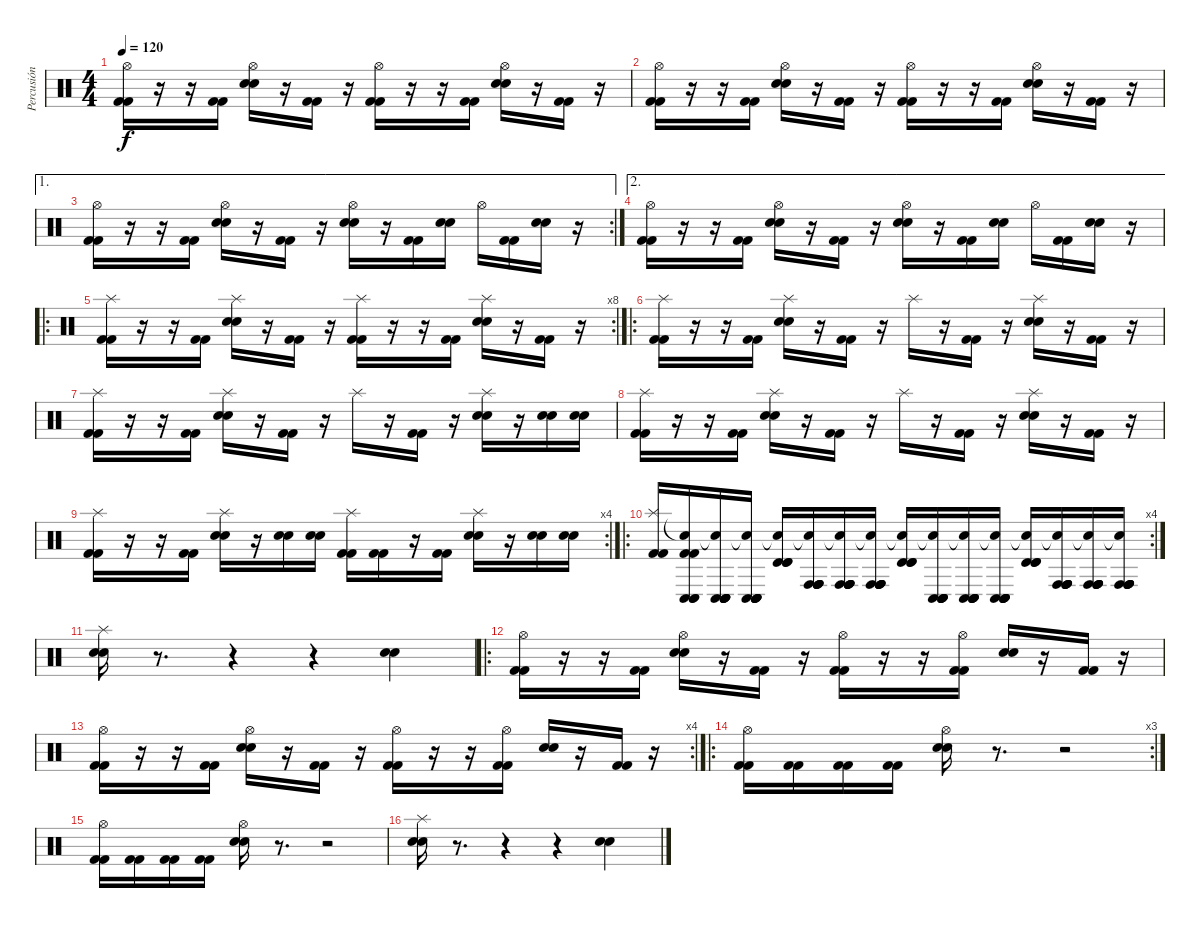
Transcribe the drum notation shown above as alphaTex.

\track ("Percusión" "Percusión") {instrument percussion}
\staff {score}
\articulation defaults
\ts (4 4)
\tempo 120
\clef neutral
\ks c
("Hi-Hat (open)" "Kick (hit) 2" "Kick (hit) 2").16{dy f} r.16 r.16 ("Kick (hit) 2" "Kick (hit) 2").16 ("Hi-Hat (open)" "Electric Snare (hit)" "Electric Snare (hit)").16 r.16 ("Kick (hit) 2" "Kick (hit) 2").16 r.16 ("Hi-Hat (open)" "Kick (hit) 2" "Kick (hit) 2").16 r.16 r.16 ("Kick (hit) 2" "Kick (hit) 2").16 ("Hi-Hat (open)" "Electric Snare (hit)" "Electric Snare (hit)").16 r.16 ("Kick (hit) 2" "Kick (hit) 2").16 r.16 |
("Hi-Hat (open)" "Kick (hit) 2" "Kick (hit) 2").16 r.16 r.16 ("Kick (hit) 2" "Kick (hit) 2").16 ("Hi-Hat (open)" "Electric Snare (hit)" "Electric Snare (hit)").16 r.16 ("Kick (hit) 2" "Kick (hit) 2").16 r.16 ("Hi-Hat (open)" "Kick (hit) 2" "Kick (hit) 2").16 r.16 r.16 ("Kick (hit) 2" "Kick (hit) 2").16 ("Hi-Hat (open)" "Electric Snare (hit)" "Electric Snare (hit)").16 r.16 ("Kick (hit) 2" "Kick (hit) 2").16 r.16 |
\ae 1
\rc 2
("Hi-Hat (open)" "Kick (hit) 2" "Kick (hit) 2").16 r.16 r.16 ("Kick (hit) 2" "Kick (hit) 2").16 ("Hi-Hat (open)" "Electric Snare (hit)" "Electric Snare (hit)").16 r.16 ("Kick (hit) 2" "Kick (hit) 2").16 r.16 ("Hi-Hat (open)" "Electric Snare (hit)" "Electric Snare (hit)").16 r.16 ("Kick (hit) 2" "Kick (hit) 2").16 ("Electric Snare (hit)" "Electric Snare (hit)").16 "Hi-Hat (open)".16 ("Kick (hit) 2" "Kick (hit) 2").16 ("Electric Snare (hit)" "Electric Snare (hit)").16 r.16 |
\ae 2
("Hi-Hat (open)" "Kick (hit) 2" "Kick (hit) 2").16 r.16 r.16 ("Kick (hit) 2" "Kick (hit) 2").16 ("Hi-Hat (open)" "Electric Snare (hit)" "Electric Snare (hit)").16 r.16 ("Kick (hit) 2" "Kick (hit) 2").16 r.16 ("Hi-Hat (open)" "Electric Snare (hit)" "Electric Snare (hit)").16 r.16 ("Kick (hit) 2" "Kick (hit) 2").16 ("Electric Snare (hit)" "Electric Snare (hit)").16 "Hi-Hat (open)".16 ("Kick (hit) 2" "Kick (hit) 2").16 ("Electric Snare (hit)" "Electric Snare (hit)").16 r.16 |
\ro
\rc 8
("Splash (hit)" "Kick (hit) 2" "Kick (hit) 2").16 r.16 r.16 ("Kick (hit) 2" "Kick (hit) 2").16 ("Splash (hit)" "Electric Snare (hit)" "Electric Snare (hit)").16 r.16 ("Kick (hit) 2" "Kick (hit) 2").16 r.16 ("Splash (hit)" "Kick (hit) 2" "Kick (hit) 2").16 r.16 r.16 ("Kick (hit) 2" "Kick (hit) 2").16 ("Splash (hit)" "Electric Snare (hit)" "Electric Snare (hit)").16 r.16 ("Kick (hit) 2" "Kick (hit) 2").16 r.16 |
\ro
("Splash (hit)" "Kick (hit) 2" "Kick (hit) 2").16 r.16 r.16 ("Kick (hit) 2" "Kick (hit) 2").16 ("Splash (hit)" "Electric Snare (hit)" "Electric Snare (hit)").16 r.16 ("Kick (hit) 2" "Kick (hit) 2").16 r.16 "Splash (hit)".16 r.16 ("Kick (hit) 2" "Kick (hit) 2").16 r.16 ("Splash (hit)" "Electric Snare (hit)" "Electric Snare (hit)").16 r.16 ("Kick (hit) 2" "Kick (hit) 2").16 r.16 |
("Splash (hit)" "Kick (hit) 2" "Kick (hit) 2").16 r.16 r.16 ("Kick (hit) 2" "Kick (hit) 2").16 ("Splash (hit)" "Electric Snare (hit)" "Electric Snare (hit)").16 r.16 ("Kick (hit) 2" "Kick (hit) 2").16 r.16 "Splash (hit)".16 r.16 ("Kick (hit) 2" "Kick (hit) 2").16 r.16 ("Splash (hit)" "Electric Snare (hit)" "Electric Snare (hit)").16 r.16 ("Electric Snare (hit)" "Electric Snare (hit)").16 ("Electric Snare (hit)" "Electric Snare (hit)").16 |
("Splash (hit)" "Kick (hit) 2" "Kick (hit) 2").16 r.16 r.16 ("Kick (hit) 2" "Kick (hit) 2").16 ("Splash (hit)" "Electric Snare (hit)" "Electric Snare (hit)").16 r.16 ("Kick (hit) 2" "Kick (hit) 2").16 r.16 "Splash (hit)".16 r.16 ("Kick (hit) 2" "Kick (hit) 2").16 r.16 ("Splash (hit)" "Electric Snare (hit)" "Electric Snare (hit)").16 r.16 ("Kick (hit) 2" "Kick (hit) 2").16 r.16 |
\rc 4
("Splash (hit)" "Kick (hit) 2" "Kick (hit) 2").16 r.16 r.16 ("Kick (hit) 2" "Kick (hit) 2").16 ("Splash (hit)" "Electric Snare (hit)" "Electric Snare (hit)").16 r.16 ("Electric Snare (hit)" "Electric Snare (hit)").16 ("Electric Snare (hit)" "Electric Snare (hit)").16 ("Splash (hit)" "Kick (hit) 2" "Kick (hit) 2").16 ("Kick (hit) 2" "Kick (hit) 2").16 r.16 ("Kick (hit) 2" "Kick (hit) 2").16 ("Splash (hit)" "Electric Snare (hit)" "Electric Snare (hit)").16 r.16 ("Electric Snare (hit)" "Electric Snare (hit)").16 ("Electric Snare (hit)" "Electric Snare (hit)").16 |
\ro
\rc 4
("Splash (hit)" "Kick (hit) 2" "Kick (hit) 2").16 ("Snare (hit)"{t} "Conga low (hit)" "Kick (hit) 2" "Kick (hit) 2" "Conga low (hit)" "Conga low (hit)").16 ("Snare (hit)"{t} "Conga low (hit)" "Conga low (hit)" "Conga low (hit)" "Conga low (hit)" "Conga low (hit)").16 ("Snare (hit)"{t} "Conga low (hit)" "Conga low (hit)" "Conga low (hit)" "Conga low (hit)" "Conga low (hit)").16 ("Snare (hit)"{t} "Timbale high (hit)" "Timbale high (hit)" "Timbale high (hit)").16 ("Snare (hit)"{t} "Conga high (hit)" "Conga high (hit)" "Conga high (hit)" "Conga high (hit)" "Conga high (hit)").16 ("Snare (hit)"{t} "Conga high (hit)" "Conga high (hit)" "Conga high (hit)" "Conga high (hit)" "Conga high (hit)").16 ("Snare (hit)"{t} "Conga high (hit)" "Conga high (hit)" "Conga high (hit)" "Conga high (hit)" "Conga high (hit)").16 ("Snare (hit)"{t} "Timbale high (hit)" "Timbale high (hit)" "Timbale high (hit)").16 ("Snare (hit)"{t} "Conga low (hit)" "Conga low (hit)" "Conga low (hit)" "Conga low (hit)" "Conga low (hit)").16 ("Snare (hit)"{t} "Conga low (hit)" "Conga low (hit)" "Conga low (hit)" "Conga low (hit)" "Conga low (hit)").16 ("Snare (hit)"{t} "Conga low (hit)" "Conga low (hit)" "Conga low (hit)" "Conga low (hit)" "Conga low (hit)").16 ("Snare (hit)"{t} "Timbale high (hit)" "Timbale high (hit)" "Timbale high (hit)").16 ("Snare (hit)"{t} "Conga high (hit)" "Conga high (hit)" "Conga high (hit)" "Conga high (hit)" "Conga high (hit)").16 ("Snare (hit)"{t} "Conga high (hit)" "Conga high (hit)" "Conga high (hit)" "Conga high (hit)" "Conga high (hit)").16 ("Snare (hit)"{t} "Conga high (hit)" "Conga high (hit)" "Conga high (hit)" "Conga high (hit)" "Conga high (hit)").16 |
("Splash (hit)" "Electric Snare (hit)" "Electric Snare (hit)").16 r.8{d} r.4 r.4 ("Electric Snare (hit)" "Electric Snare (hit)").4 |
\ro
("Hi-Hat (open)" "Kick (hit) 2" "Kick (hit) 2").16 r.16 r.16 ("Kick (hit) 2" "Kick (hit) 2").16 ("Hi-Hat (open)" "Electric Snare (hit)" "Electric Snare (hit)").16 r.16 ("Kick (hit) 2" "Kick (hit) 2").16 r.16 ("Hi-Hat (open)" "Kick (hit) 2" "Kick (hit) 2").16 r.16 r.16 ("Hi-Hat (open)" "Kick (hit) 2" "Kick (hit) 2").16 ("Electric Snare (hit)" "Electric Snare (hit)").16 r.16 ("Kick (hit) 2" "Kick (hit) 2").16 r.16 |
\rc 4
("Hi-Hat (open)" "Kick (hit) 2" "Kick (hit) 2").16 r.16 r.16 ("Kick (hit) 2" "Kick (hit) 2").16 ("Hi-Hat (open)" "Electric Snare (hit)" "Electric Snare (hit)").16 r.16 ("Kick (hit) 2" "Kick (hit) 2").16 r.16 ("Hi-Hat (open)" "Kick (hit) 2" "Kick (hit) 2").16 r.16 r.16 ("Hi-Hat (open)" "Kick (hit) 2" "Kick (hit) 2").16 ("Electric Snare (hit)" "Electric Snare (hit)").16 r.16 ("Kick (hit) 2" "Kick (hit) 2").16 r.16 |
\ro
\rc 3
("Hi-Hat (open)" "Kick (hit) 2" "Kick (hit) 2").16 ("Kick (hit) 2" "Kick (hit) 2").16 ("Kick (hit) 2" "Kick (hit) 2").16 ("Kick (hit) 2" "Kick (hit) 2").16 ("Hi-Hat (open)" "Electric Snare (hit)" "Electric Snare (hit)").16 r.8{d} r.2 |
("Hi-Hat (open)" "Kick (hit) 2" "Kick (hit) 2").16 ("Kick (hit) 2" "Kick (hit) 2").16 ("Kick (hit) 2" "Kick (hit) 2").16 ("Kick (hit) 2" "Kick (hit) 2").16 ("Hi-Hat (open)" "Electric Snare (hit)" "Electric Snare (hit)").16 r.8{d} r.2 |
("Splash (hit)" "Electric Snare (hit)" "Electric Snare (hit)").16 r.8{d} r.4 r.4 ("Electric Snare (hit)" "Electric Snare (hit)").4
